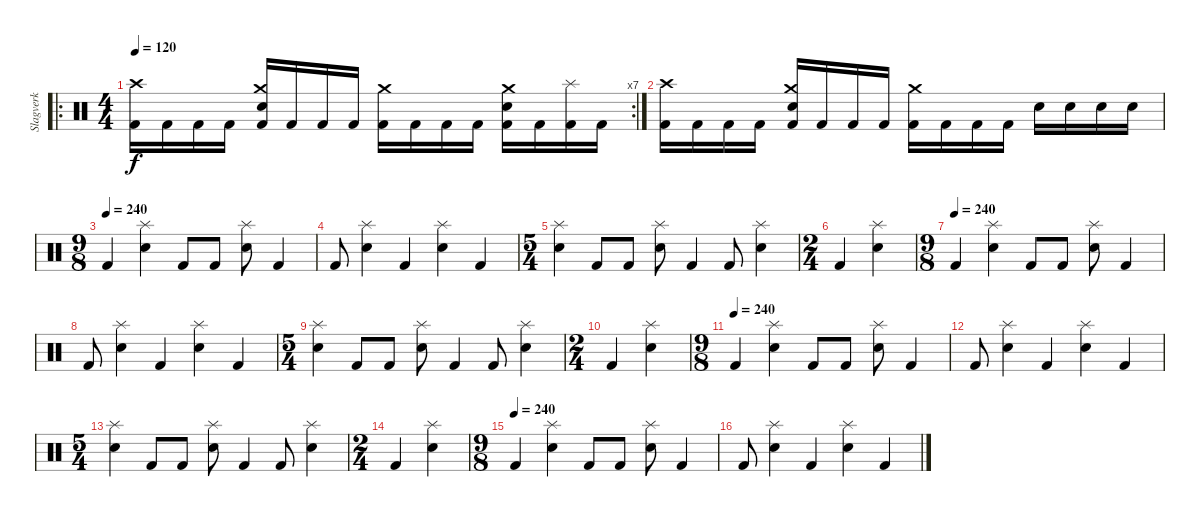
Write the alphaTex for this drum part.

\track ("Slagverk" "Slagverk") {instrument percussion}
\staff {score}
\articulation defaults
\ro
\rc 7
\ts (4 4)
\tempo 120
\clef neutral
\ks c
("Crash high (hit)" "Kick (hit) 2").16{dy f} "Kick (hit) 2".16 "Kick (hit) 2".16 "Kick (hit) 2".16 ("Crash medium (hit)" "Electric Snare (hit)" "Kick (hit) 2").16 "Kick (hit) 2".16 "Kick (hit) 2".16 "Kick (hit) 2".16 ("Crash medium (hit)" "Kick (hit) 2").16 "Kick (hit) 2".16 "Kick (hit) 2".16 "Kick (hit) 2".16 ("Crash medium (hit)" "Electric Snare (hit)" "Kick (hit) 2").16 "Kick (hit) 2".16 ("Splash (hit)" "Kick (hit) 2").16 "Kick (hit) 2".16 |
("Crash high (hit)" "Kick (hit) 2").16 "Kick (hit) 2".16 "Kick (hit) 2".16 "Kick (hit) 2".16 ("Crash medium (hit)" "Electric Snare (hit)" "Kick (hit) 2").16 "Kick (hit) 2".16 "Kick (hit) 2".16 "Kick (hit) 2".16 ("Crash medium (hit)" "Kick (hit) 2").16 "Kick (hit) 2".16 "Kick (hit) 2".16 "Kick (hit) 2".16 "Electric Snare (hit)".16 "Electric Snare (hit)".16 "Electric Snare (hit)".16 "Electric Snare (hit)".16 |
\ts (9 8)
\tempo (240)
"Kick (hit) 2".4 ("Splash (hit)" "Electric Snare (hit)").4 "Kick (hit) 2".8 "Kick (hit) 2".8 ("Splash (hit)" "Electric Snare (hit)").8 "Kick (hit) 2".4 |
"Kick (hit) 2".8 ("Splash (hit)" "Electric Snare (hit)").4 "Kick (hit) 2".4 ("Splash (hit)" "Electric Snare (hit)").4 "Kick (hit) 2".4 |
\ts (5 4)
("Splash (hit)" "Electric Snare (hit)").4 "Kick (hit) 2".8 "Kick (hit) 2".8 ("Splash (hit)" "Electric Snare (hit)").8 "Kick (hit) 2".4 "Kick (hit) 2".8 ("Splash (hit)" "Electric Snare (hit)").4 |
\ts (2 4)
"Kick (hit) 2".4 ("Splash (hit)" "Electric Snare (hit)").4 |
\ts (9 8)
\tempo (240)
"Kick (hit) 2".4 ("Splash (hit)" "Electric Snare (hit)").4 "Kick (hit) 2".8 "Kick (hit) 2".8 ("Splash (hit)" "Electric Snare (hit)").8 "Kick (hit) 2".4 |
"Kick (hit) 2".8 ("Splash (hit)" "Electric Snare (hit)").4 "Kick (hit) 2".4 ("Splash (hit)" "Electric Snare (hit)").4 "Kick (hit) 2".4 |
\ts (5 4)
("Splash (hit)" "Electric Snare (hit)").4 "Kick (hit) 2".8 "Kick (hit) 2".8 ("Splash (hit)" "Electric Snare (hit)").8 "Kick (hit) 2".4 "Kick (hit) 2".8 ("Splash (hit)" "Electric Snare (hit)").4 |
\ts (2 4)
"Kick (hit) 2".4 ("Splash (hit)" "Electric Snare (hit)").4 |
\ts (9 8)
\tempo (240)
"Kick (hit) 2".4 ("Splash (hit)" "Electric Snare (hit)").4 "Kick (hit) 2".8 "Kick (hit) 2".8 ("Splash (hit)" "Electric Snare (hit)").8 "Kick (hit) 2".4 |
"Kick (hit) 2".8 ("Splash (hit)" "Electric Snare (hit)").4 "Kick (hit) 2".4 ("Splash (hit)" "Electric Snare (hit)").4 "Kick (hit) 2".4 |
\ts (5 4)
("Splash (hit)" "Electric Snare (hit)").4 "Kick (hit) 2".8 "Kick (hit) 2".8 ("Splash (hit)" "Electric Snare (hit)").8 "Kick (hit) 2".4 "Kick (hit) 2".8 ("Splash (hit)" "Electric Snare (hit)").4 |
\ts (2 4)
"Kick (hit) 2".4 ("Splash (hit)" "Electric Snare (hit)").4 |
\ts (9 8)
\tempo (240)
"Kick (hit) 2".4 ("Splash (hit)" "Electric Snare (hit)").4 "Kick (hit) 2".8 "Kick (hit) 2".8 ("Splash (hit)" "Electric Snare (hit)").8 "Kick (hit) 2".4 |
"Kick (hit) 2".8 ("Splash (hit)" "Electric Snare (hit)").4 "Kick (hit) 2".4 ("Splash (hit)" "Electric Snare (hit)").4 "Kick (hit) 2".4
